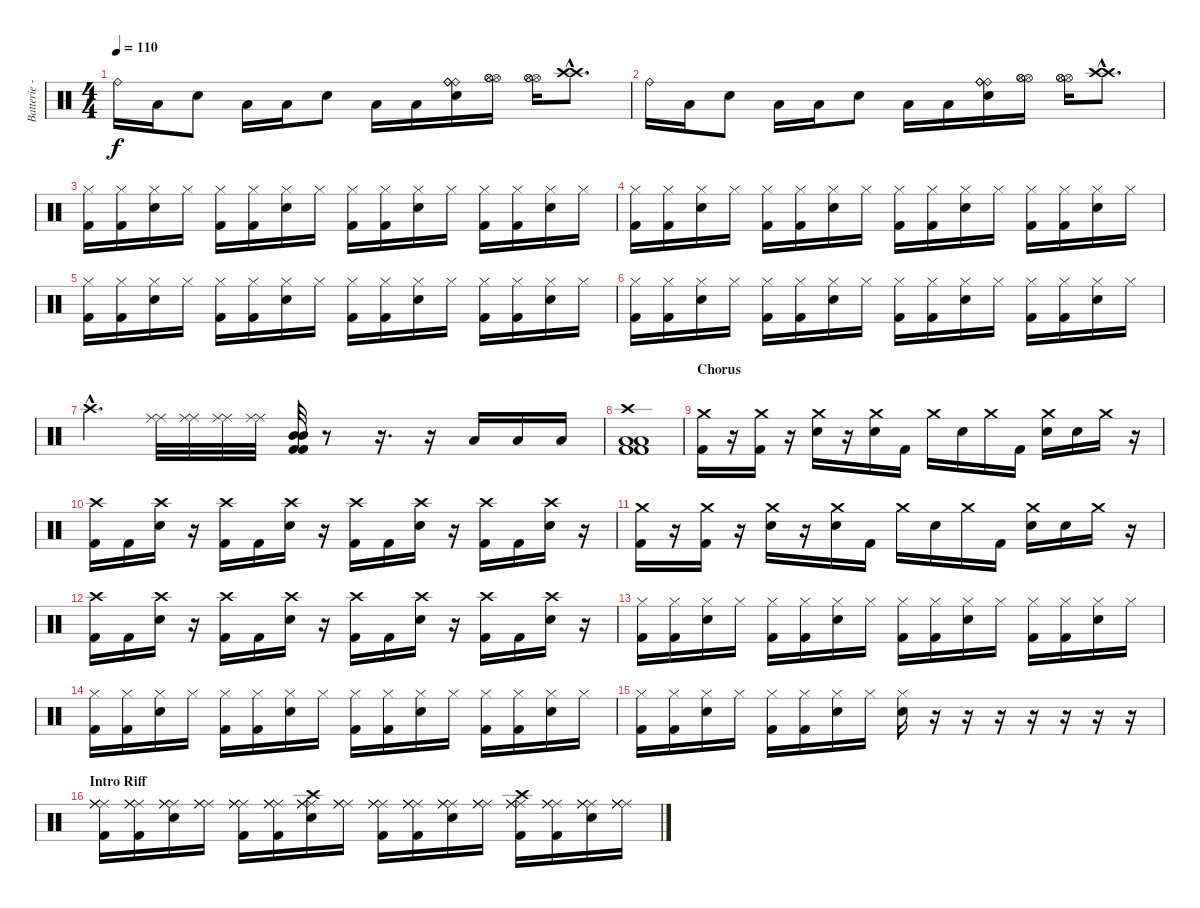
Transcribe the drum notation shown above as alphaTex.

\track ("Batterie - Travis Barker" "Batterie -") {instrument percussion}
\staff {score}
\articulation defaults
\ts (4 4)
\tempo 110
\clef neutral
\ks c "Ride (bell)".16{dy f} "Low Floor Tom (hit)".16 "Snare (hit) 2".8 "Low Floor Tom (hit)".16 "Low Floor Tom (hit)".16 "Snare (hit) 2".8 "Low Floor Tom (hit)".16 "Low Floor Tom (hit)".16
("Snare (hit) 2" "Ride (bell)" "Ride (bell)" "Ride (bell)").16 ("Hi-Hat (open)" "Hi-Hat (open)" "Hi-Hat (open)").16 ("Hi-Hat (open)" "Hi-Hat (open)" "Hi-Hat (open)").16 ("Crash high (hit)"{hac} "Crash high (hit)"{hac}).8{d} |
"Ride (bell)".16 "Low Floor Tom (hit)".16 "Snare (hit) 2".8 "Low Floor Tom (hit)".16 "Low Floor Tom (hit)".16 "Snare (hit) 2".8 "Low Floor Tom (hit)".16 "Low Floor Tom (hit)".16 ("Snare (hit) 2" "Ride (bell)" "Ride (bell)" "Ride (bell)").16 ("Hi-Hat (open)" "Hi-Hat (open)" "Hi-Hat (open)").16 ("Hi-Hat (open)" "Hi-Hat (open)" "Hi-Hat (open)").16 ("Crash high (hit)"{hac} "Crash high (hit)"{hac}).8{d} |
("Hi-Hat (closed)" "Kick (hit) 2").16 ("Hi-Hat (closed)" "Kick (hit) 2").16 ("Hi-Hat (closed)" "Snare (hit) 2").16 "Hi-Hat (closed)".16 ("Hi-Hat (closed)" "Kick (hit) 2").16 ("Hi-Hat (closed)" "Kick (hit) 2").16 ("Hi-Hat (closed)" "Snare (hit) 2").16 "Hi-Hat (closed)".16 ("Hi-Hat (closed)" "Kick (hit) 2").16 ("Hi-Hat (closed)" "Kick (hit) 2").16 ("Hi-Hat (closed)" "Snare (hit) 2").16 "Hi-Hat (closed)".16 ("Hi-Hat (closed)" "Kick (hit) 2").16 ("Hi-Hat (closed)" "Kick (hit) 2").16 ("Hi-Hat (closed)" "Snare (hit) 2").16 "Hi-Hat (closed)".16 |
("Hi-Hat (closed)" "Kick (hit) 2").16 ("Hi-Hat (closed)" "Kick (hit) 2").16 ("Hi-Hat (closed)" "Snare (hit) 2").16 "Hi-Hat (closed)".16 ("Hi-Hat (closed)" "Kick (hit) 2").16 ("Hi-Hat (closed)" "Kick (hit) 2").16 ("Hi-Hat (closed)" "Snare (hit) 2").16 "Hi-Hat (closed)".16 ("Hi-Hat (closed)" "Kick (hit) 2").16 ("Hi-Hat (closed)" "Kick (hit) 2").16 ("Hi-Hat (closed)" "Snare (hit) 2").16 "Hi-Hat (closed)".16 ("Hi-Hat (closed)" "Kick (hit) 2").16 ("Hi-Hat (closed)" "Kick (hit) 2").16 ("Hi-Hat (closed)" "Snare (hit) 2").16 "Hi-Hat (closed)".16 |
("Hi-Hat (closed)" "Kick (hit) 2").16 ("Hi-Hat (closed)" "Kick (hit) 2").16 ("Hi-Hat (closed)" "Snare (hit) 2").16 "Hi-Hat (closed)".16 ("Hi-Hat (closed)" "Kick (hit) 2").16 ("Hi-Hat (closed)" "Kick (hit) 2").16 ("Hi-Hat (closed)" "Snare (hit) 2").16 "Hi-Hat (closed)".16 ("Hi-Hat (closed)" "Kick (hit) 2").16 ("Hi-Hat (closed)" "Kick (hit) 2").16 ("Hi-Hat (closed)" "Snare (hit) 2").16 "Hi-Hat (closed)".16 ("Hi-Hat (closed)" "Kick (hit) 2").16 ("Hi-Hat (closed)" "Kick (hit) 2").16 ("Hi-Hat (closed)" "Snare (hit) 2").16 "Hi-Hat (closed)".16 |
("Hi-Hat (closed)" "Kick (hit) 2").16 ("Hi-Hat (closed)" "Kick (hit) 2").16 ("Hi-Hat (closed)" "Snare (hit) 2").16 "Hi-Hat (closed)".16 ("Hi-Hat (closed)" "Kick (hit) 2").16 ("Hi-Hat (closed)" "Kick (hit) 2").16 ("Hi-Hat (closed)" "Snare (hit) 2").16 "Hi-Hat (closed)".16 ("Hi-Hat (closed)" "Kick (hit) 2").16 ("Hi-Hat (closed)" "Kick (hit) 2").16 ("Hi-Hat (closed)" "Snare (hit) 2").16 "Hi-Hat (closed)".16 ("Hi-Hat (closed)" "Kick (hit) 2").16 ("Hi-Hat (closed)" "Kick (hit) 2").16 ("Hi-Hat (closed)" "Snare (hit) 2").16 "Hi-Hat (closed)".16 |
"Crash high (hit)"{hac}.4{d} ("Ride (middle)" "Ride (middle)").32 ("Ride (middle)" "Ride (middle)").32 ("Ride (middle)" "Ride (middle)").32 ("Ride (middle)" "Ride (middle)").32 ("Mid Tom (hit)" "Mid Tom (hit)" "Kick (hit) 2" "Kick (hit) 2").32 r.8 r.16{d} r.16 "Low Floor Tom (hit)".16 "Low Floor Tom (hit)".16 "Low Floor Tom (hit)".16 |
("Kick (hit) 2" "Kick (hit) 2" "Low Floor Tom (hit)" "Low Floor Tom (hit)" "Crash high (hit)").1 |
\section ("" "Chorus")
("Crash medium (hit)" "Kick (hit) 2").16 r.16 ("Crash medium (hit)" "Kick (hit) 2").16 r.16 ("Crash medium (hit)" "Snare (hit) 2").16 r.16 ("Crash medium (hit)" "Snare (hit) 2").16 "Kick (hit) 2".16 "Crash medium (hit)".16 "Snare (hit) 2".16 "Crash medium (hit)".16 "Kick (hit) 2".16 ("Crash medium (hit)" "Snare (hit) 2").16 "Snare (hit) 2".16 "Crash medium (hit)".16 r.16 |
("Crash high (hit)" "Kick (hit) 2").16 "Kick (hit) 2".16 ("Crash high (hit)" "Snare (hit) 2").16 r.16 ("Crash high (hit)" "Kick (hit) 2").16 "Kick (hit) 2".16 ("Crash high (hit)" "Snare (hit) 2").16 r.16 ("Crash high (hit)" "Kick (hit) 2").16 "Kick (hit) 2".16 ("Crash high (hit)" "Snare (hit) 2").16 r.16 ("Crash high (hit)" "Kick (hit) 2").16 "Kick (hit) 2".16 ("Crash high (hit)" "Snare (hit) 2").16 r.16 |
("Crash medium (hit)" "Kick (hit) 2").16 r.16 ("Crash medium (hit)" "Kick (hit) 2").16 r.16 ("Crash medium (hit)" "Snare (hit) 2").16 r.16 ("Crash medium (hit)" "Snare (hit) 2").16 "Kick (hit) 2".16 "Crash medium (hit)".16 "Snare (hit) 2".16 "Crash medium (hit)".16 "Kick (hit) 2".16 ("Crash medium (hit)" "Snare (hit) 2").16 "Snare (hit) 2".16 "Crash medium (hit)".16 r.16 |
("Crash high (hit)" "Kick (hit) 2").16 "Kick (hit) 2".16 ("Crash high (hit)" "Snare (hit) 2").16 r.16 ("Crash high (hit)" "Kick (hit) 2").16 "Kick (hit) 2".16 ("Crash high (hit)" "Snare (hit) 2").16 r.16 ("Crash high (hit)" "Kick (hit) 2").16 "Kick (hit) 2".16 ("Crash high (hit)" "Snare (hit) 2").16 r.16 ("Crash high (hit)" "Kick (hit) 2").16 "Kick (hit) 2".16 ("Crash high (hit)" "Snare (hit) 2").16 r.16 |
("Hi-Hat (closed)" "Kick (hit) 2").16 ("Hi-Hat (closed)" "Kick (hit) 2").16 ("Hi-Hat (closed)" "Snare (hit) 2").16 "Hi-Hat (closed)".16 ("Hi-Hat (closed)" "Kick (hit) 2").16 ("Hi-Hat (closed)" "Kick (hit) 2").16 ("Hi-Hat (closed)" "Snare (hit) 2").16 "Hi-Hat (closed)".16 ("Hi-Hat (closed)" "Kick (hit) 2").16 ("Hi-Hat (closed)" "Kick (hit) 2").16 ("Hi-Hat (closed)" "Snare (hit) 2").16 "Hi-Hat (closed)".16 ("Hi-Hat (closed)" "Kick (hit) 2").16 ("Hi-Hat (closed)" "Kick (hit) 2").16 ("Hi-Hat (closed)" "Snare (hit) 2").16 "Hi-Hat (closed)".16 |
("Hi-Hat (closed)" "Kick (hit) 2").16 ("Hi-Hat (closed)" "Kick (hit) 2").16 ("Hi-Hat (closed)" "Snare (hit) 2").16 "Hi-Hat (closed)".16 ("Hi-Hat (closed)" "Kick (hit) 2").16 ("Hi-Hat (closed)" "Kick (hit) 2").16 ("Hi-Hat (closed)" "Snare (hit) 2").16 "Hi-Hat (closed)".16 ("Hi-Hat (closed)" "Kick (hit) 2").16 ("Hi-Hat (closed)" "Kick (hit) 2").16 ("Hi-Hat (closed)" "Snare (hit) 2").16 "Hi-Hat (closed)".16 ("Hi-Hat (closed)" "Kick (hit) 2").16 ("Hi-Hat (closed)" "Kick (hit) 2").16 ("Hi-Hat (closed)" "Snare (hit) 2").16 "Hi-Hat (closed)".16 |
("Hi-Hat (closed)" "Kick (hit) 2").16 ("Hi-Hat (closed)" "Kick (hit) 2").16 ("Hi-Hat (closed)" "Snare (hit) 2").16 "Hi-Hat (closed)".16 ("Hi-Hat (closed)" "Kick (hit) 2").16 ("Hi-Hat (closed)" "Kick (hit) 2").16 ("Hi-Hat (closed)" "Snare (hit) 2").16 "Hi-Hat (closed)".16 ("Hi-Hat (closed)" "Snare (hit) 2").16 r.16 r.16 r.16 r.16 r.16 r.16 r.16 |
\section ("" "Intro Riff")
("Ride (middle)" "Kick (hit) 2" "Ride (middle)" "Ride (middle)" "Ride (middle)").16 ("Ride (middle)" "Kick (hit) 2" "Ride (middle)" "Ride (middle)" "Ride (middle)").16 ("Ride (middle)" "Snare (hit) 2" "Ride (middle)" "Ride (middle)" "Ride (middle)").16 ("Ride (middle)" "Ride (middle)" "Ride (middle)" "Ride (middle)").16 ("Ride (middle)" "Kick (hit) 2" "Ride (middle)" "Ride (middle)" "Ride (middle)").16 ("Ride (middle)" "Kick (hit) 2" "Ride (middle)" "Ride (middle)" "Ride (middle)").16 ("Ride (middle)" "Crash high (hit)" "Snare (hit) 2" "Ride (middle)" "Ride (middle)" "Ride (middle)").16 ("Ride (middle)" "Ride (middle)" "Ride (middle)" "Ride (middle)").16 ("Ride (middle)" "Kick (hit) 2" "Ride (middle)" "Ride (middle)" "Ride (middle)").16 ("Ride (middle)" "Kick (hit) 2" "Ride (middle)" "Ride (middle)" "Ride (middle)").16 ("Ride (middle)" "Snare (hit) 2" "Ride (middle)" "Ride (middle)" "Ride (middle)").16 ("Ride (middle)" "Ride (middle)" "Ride (middle)" "Ride (middle)").16 ("Ride (middle)" "Crash high (hit)" "Kick (hit) 2" "Ride (middle)" "Ride (middle)" "Ride (middle)").16 ("Ride (middle)" "Kick (hit) 2" "Ride (middle)" "Ride (middle)" "Ride (middle)").16 ("Ride (middle)" "Snare (hit) 2" "Ride (middle)" "Ride (middle)" "Ride (middle)").16 ("Ride (middle)" "Ride (middle)" "Ride (middle)" "Ride (middle)").16
